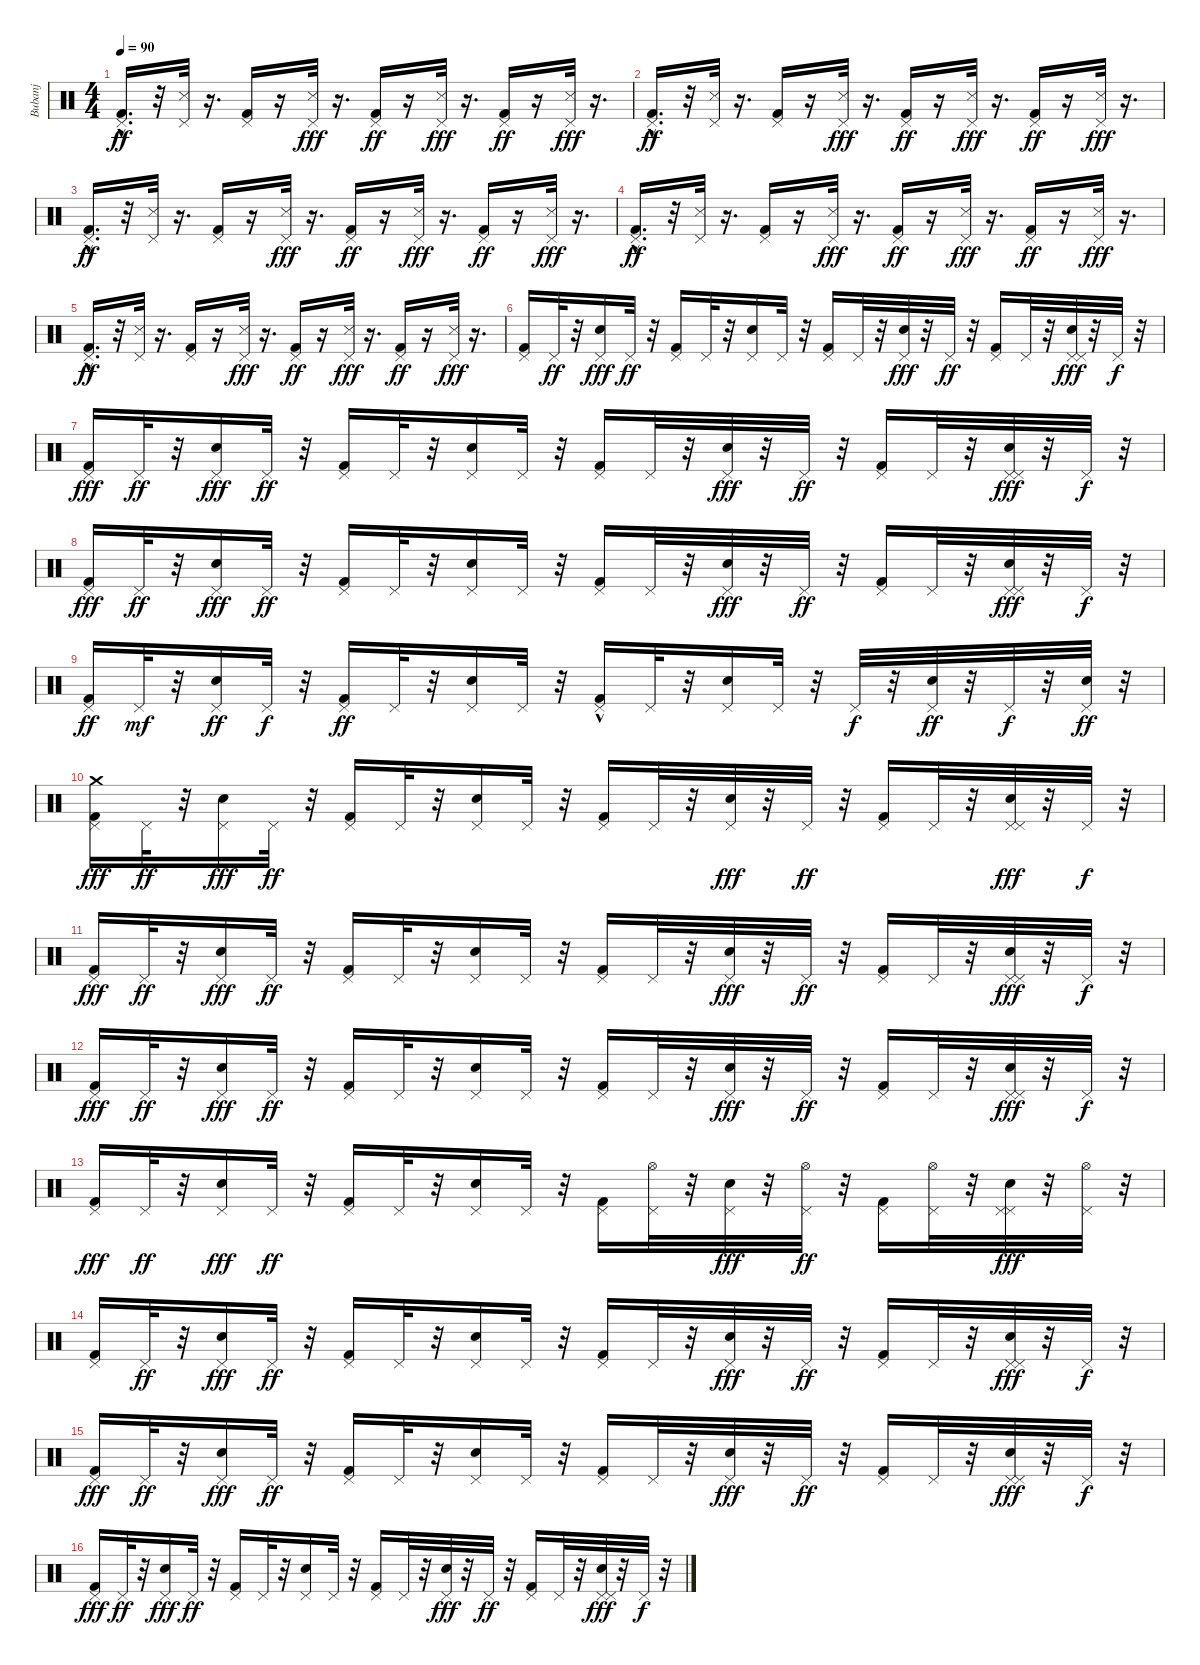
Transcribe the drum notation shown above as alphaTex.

\track ("Bubanj" "Bubanj") {instrument percussion}
\staff {score}
\articulation defaults
\ts (4 4)
\tempo 90
\clef neutral
\ks c
("Kick (hit) 2"{hac} "Pedal Hi-Hat (hit)").16{d dy ff} r.32 ("Pedal Hi-Hat (hit)" "Snare (side stick) 3").32 r.16{d} ("Pedal Hi-Hat (hit)" "Kick (hit) 2").16 r.16 ("Snare (side stick) 3" "Pedal Hi-Hat (hit)").32{dy fff} r.16{d} ("Kick (hit) 2" "Pedal Hi-Hat (hit)").16{dy ff} r.16 ("Snare (side stick) 3" "Pedal Hi-Hat (hit)").32{dy fff} r.16{d} ("Kick (hit) 2" "Pedal Hi-Hat (hit)").16{dy ff} r.16 ("Snare (side stick) 3" "Pedal Hi-Hat (hit)").32{dy fff} r.16{d} |
("Kick (hit) 2"{hac} "Pedal Hi-Hat (hit)").16{d dy ff} r.32 ("Pedal Hi-Hat (hit)" "Snare (side stick) 3").32 r.16{d} ("Pedal Hi-Hat (hit)" "Kick (hit) 2").16 r.16 ("Snare (side stick) 3" "Pedal Hi-Hat (hit)").32{dy fff} r.16{d} ("Kick (hit) 2" "Pedal Hi-Hat (hit)").16{dy ff} r.16 ("Snare (side stick) 3" "Pedal Hi-Hat (hit)").32{dy fff} r.16{d} ("Kick (hit) 2" "Pedal Hi-Hat (hit)").16{dy ff} r.16 ("Snare (side stick) 3" "Pedal Hi-Hat (hit)").32{dy fff} r.16{d} |
("Kick (hit) 2"{hac} "Pedal Hi-Hat (hit)").16{d dy ff} r.32 ("Pedal Hi-Hat (hit)" "Snare (side stick) 3").32 r.16{d} ("Pedal Hi-Hat (hit)" "Kick (hit) 2").16 r.16 ("Snare (side stick) 3" "Pedal Hi-Hat (hit)").32{dy fff} r.16{d} ("Kick (hit) 2" "Pedal Hi-Hat (hit)").16{dy ff} r.16 ("Snare (side stick) 3" "Pedal Hi-Hat (hit)").32{dy fff} r.16{d} ("Kick (hit) 2" "Pedal Hi-Hat (hit)").16{dy ff} r.16 ("Snare (side stick) 3" "Pedal Hi-Hat (hit)").32{dy fff} r.16{d} |
("Kick (hit) 2"{hac} "Pedal Hi-Hat (hit)").16{d dy ff} r.32 ("Pedal Hi-Hat (hit)" "Snare (side stick) 3").32 r.16{d} ("Pedal Hi-Hat (hit)" "Kick (hit) 2").16 r.16 ("Snare (side stick) 3" "Pedal Hi-Hat (hit)").32{dy fff} r.16{d} ("Kick (hit) 2" "Pedal Hi-Hat (hit)").16{dy ff} r.16 ("Snare (side stick) 3" "Pedal Hi-Hat (hit)").32{dy fff} r.16{d} ("Kick (hit) 2" "Pedal Hi-Hat (hit)").16{dy ff} r.16 ("Snare (side stick) 3" "Pedal Hi-Hat (hit)").32{dy fff} r.16{d} |
("Kick (hit) 2"{hac} "Pedal Hi-Hat (hit)").16{d dy ff} r.32 ("Pedal Hi-Hat (hit)" "Snare (side stick) 3").32 r.16{d} ("Pedal Hi-Hat (hit)" "Kick (hit) 2").16 r.16 ("Snare (side stick) 3" "Pedal Hi-Hat (hit)").32{dy fff} r.16{d} ("Kick (hit) 2" "Pedal Hi-Hat (hit)").16{dy ff} r.16 ("Snare (side stick) 3" "Pedal Hi-Hat (hit)").32{dy fff} r.16{d} ("Kick (hit) 2" "Pedal Hi-Hat (hit)").16{dy ff} r.16 ("Snare (side stick) 3" "Pedal Hi-Hat (hit)").32{dy fff} r.16{d} |
("Pedal Hi-Hat (hit)" "Kick (hit) 2").16 "Pedal Hi-Hat (hit)".32{dy ff} r.32 ("Pedal Hi-Hat (hit)" "Electric Snare (hit)").16{dy fff} "Pedal Hi-Hat (hit)".32{dy ff} r.32 ("Pedal Hi-Hat (hit)" "Kick (hit) 2").16 "Pedal Hi-Hat (hit)".32 r.32 ("Pedal Hi-Hat (hit)" "Electric Snare (hit)").16 "Pedal Hi-Hat (hit)".32 r.32 ("Pedal Hi-Hat (hit)" "Kick (hit) 2").16 "Pedal Hi-Hat (hit)".32 r.32 ("Pedal Hi-Hat (hit)" "Electric Snare (hit)").32{dy fff} r.32 "Pedal Hi-Hat (hit)".32{dy ff} r.32 ("Pedal Hi-Hat (hit)" "Kick (hit) 2").16 "Pedal Hi-Hat (hit)".32 r.32 ("Pedal Hi-Hat (hit)" "Pedal Hi-Hat (hit)" "Electric Snare (hit)").32{dy fff} r.32 "Pedal Hi-Hat (hit)".32{dy f} r.32 |
("Pedal Hi-Hat (hit)" "Kick (hit) 2").16{dy fff} "Pedal Hi-Hat (hit)".32{dy ff} r.32 ("Pedal Hi-Hat (hit)" "Electric Snare (hit)").16{dy fff} "Pedal Hi-Hat (hit)".32{dy ff} r.32 ("Pedal Hi-Hat (hit)" "Kick (hit) 2").16 "Pedal Hi-Hat (hit)".32 r.32 ("Pedal Hi-Hat (hit)" "Electric Snare (hit)").16 "Pedal Hi-Hat (hit)".32 r.32 ("Pedal Hi-Hat (hit)" "Kick (hit) 2").16 "Pedal Hi-Hat (hit)".32 r.32 ("Pedal Hi-Hat (hit)" "Electric Snare (hit)").32{dy fff} r.32 "Pedal Hi-Hat (hit)".32{dy ff} r.32 ("Pedal Hi-Hat (hit)" "Kick (hit) 2").16 "Pedal Hi-Hat (hit)".32 r.32 ("Pedal Hi-Hat (hit)" "Pedal Hi-Hat (hit)" "Electric Snare (hit)").32{dy fff} r.32 "Pedal Hi-Hat (hit)".32{dy f} r.32 |
("Pedal Hi-Hat (hit)" "Kick (hit) 2").16{dy fff} "Pedal Hi-Hat (hit)".32{dy ff} r.32 ("Pedal Hi-Hat (hit)" "Electric Snare (hit)").16{dy fff} "Pedal Hi-Hat (hit)".32{dy ff} r.32 ("Pedal Hi-Hat (hit)" "Kick (hit) 2").16 "Pedal Hi-Hat (hit)".32 r.32 ("Pedal Hi-Hat (hit)" "Electric Snare (hit)").16 "Pedal Hi-Hat (hit)".32 r.32 ("Pedal Hi-Hat (hit)" "Kick (hit) 2").16 "Pedal Hi-Hat (hit)".32 r.32 ("Pedal Hi-Hat (hit)" "Electric Snare (hit)").32{dy fff} r.32 "Pedal Hi-Hat (hit)".32{dy ff} r.32 ("Pedal Hi-Hat (hit)" "Kick (hit) 2").16 "Pedal Hi-Hat (hit)".32 r.32 ("Pedal Hi-Hat (hit)" "Pedal Hi-Hat (hit)" "Electric Snare (hit)").32{dy fff} r.32 "Pedal Hi-Hat (hit)".32{dy f} r.32 |
("Pedal Hi-Hat (hit)" "Kick (hit) 2").16{dy ff} "Pedal Hi-Hat (hit)".32{dy mf} r.32 ("Electric Snare (hit)" "Pedal Hi-Hat (hit)").16{dy ff} "Pedal Hi-Hat (hit)".32{dy f} r.32 ("Kick (hit) 2" "Pedal Hi-Hat (hit)").16{dy ff} "Pedal Hi-Hat (hit)".32 r.32 ("Electric Snare (hit)" "Pedal Hi-Hat (hit)").16 "Pedal Hi-Hat (hit)".32 r.32 ("Kick (hit) 2"{hac} "Pedal Hi-Hat (hit)").16 "Pedal Hi-Hat (hit)".32 r.32 ("Electric Snare (hit)" "Pedal Hi-Hat (hit)").16 "Pedal Hi-Hat (hit)".32 r.32 "Pedal Hi-Hat (hit)".32{dy f} r.32 ("Electric Snare (hit)" "Pedal Hi-Hat (hit)").32{dy ff} r.32 "Pedal Hi-Hat (hit)".32{dy f} r.32 ("Electric Snare (hit)" "Pedal Hi-Hat (hit)").32{dy ff} r.32 |
("Crash medium (hit)" "Pedal Hi-Hat (hit)" "Kick (hit) 2").16{dy fff} "Pedal Hi-Hat (hit)".32{dy ff} r.32 ("Pedal Hi-Hat (hit)" "Electric Snare (hit)").16{dy fff} "Pedal Hi-Hat (hit)".32{dy ff} r.32 ("Pedal Hi-Hat (hit)" "Kick (hit) 2").16 "Pedal Hi-Hat (hit)".32 r.32 ("Pedal Hi-Hat (hit)" "Electric Snare (hit)").16 "Pedal Hi-Hat (hit)".32 r.32 ("Pedal Hi-Hat (hit)" "Kick (hit) 2").16 "Pedal Hi-Hat (hit)".32 r.32 ("Pedal Hi-Hat (hit)" "Electric Snare (hit)").32{dy fff} r.32 "Pedal Hi-Hat (hit)".32{dy ff} r.32 ("Pedal Hi-Hat (hit)" "Kick (hit) 2").16 "Pedal Hi-Hat (hit)".32 r.32 ("Pedal Hi-Hat (hit)" "Pedal Hi-Hat (hit)" "Electric Snare (hit)").32{dy fff} r.32 "Pedal Hi-Hat (hit)".32{dy f} r.32 |
("Pedal Hi-Hat (hit)" "Kick (hit) 2").16{dy fff} "Pedal Hi-Hat (hit)".32{dy ff} r.32 ("Pedal Hi-Hat (hit)" "Electric Snare (hit)").16{dy fff} "Pedal Hi-Hat (hit)".32{dy ff} r.32 ("Pedal Hi-Hat (hit)" "Kick (hit) 2").16 "Pedal Hi-Hat (hit)".32 r.32 ("Pedal Hi-Hat (hit)" "Electric Snare (hit)").16 "Pedal Hi-Hat (hit)".32 r.32 ("Pedal Hi-Hat (hit)" "Kick (hit) 2").16 "Pedal Hi-Hat (hit)".32 r.32 ("Pedal Hi-Hat (hit)" "Electric Snare (hit)").32{dy fff} r.32 "Pedal Hi-Hat (hit)".32{dy ff} r.32 ("Pedal Hi-Hat (hit)" "Kick (hit) 2").16 "Pedal Hi-Hat (hit)".32 r.32 ("Pedal Hi-Hat (hit)" "Pedal Hi-Hat (hit)" "Electric Snare (hit)").32{dy fff} r.32 "Pedal Hi-Hat (hit)".32{dy f} r.32 |
("Pedal Hi-Hat (hit)" "Kick (hit) 2").16{dy fff} "Pedal Hi-Hat (hit)".32{dy ff} r.32 ("Pedal Hi-Hat (hit)" "Electric Snare (hit)").16{dy fff} "Pedal Hi-Hat (hit)".32{dy ff} r.32 ("Pedal Hi-Hat (hit)" "Kick (hit) 2").16 "Pedal Hi-Hat (hit)".32 r.32 ("Pedal Hi-Hat (hit)" "Electric Snare (hit)").16 "Pedal Hi-Hat (hit)".32 r.32 ("Pedal Hi-Hat (hit)" "Kick (hit) 2").16 "Pedal Hi-Hat (hit)".32 r.32 ("Pedal Hi-Hat (hit)" "Electric Snare (hit)").32{dy fff} r.32 "Pedal Hi-Hat (hit)".32{dy ff} r.32 ("Pedal Hi-Hat (hit)" "Kick (hit) 2").16 "Pedal Hi-Hat (hit)".32 r.32 ("Pedal Hi-Hat (hit)" "Pedal Hi-Hat (hit)" "Electric Snare (hit)").32{dy fff} r.32 "Pedal Hi-Hat (hit)".32{dy f} r.32 |
("Pedal Hi-Hat (hit)" "Kick (hit) 2").16{dy fff} "Pedal Hi-Hat (hit)".32{dy ff} r.32 ("Pedal Hi-Hat (hit)" "Electric Snare (hit)").16{dy fff} "Pedal Hi-Hat (hit)".32{dy ff} r.32 ("Pedal Hi-Hat (hit)" "Kick (hit) 2").16 "Pedal Hi-Hat (hit)".32 r.32 ("Pedal Hi-Hat (hit)" "Electric Snare (hit)").16 "Pedal Hi-Hat (hit)".32 r.32 ("Pedal Hi-Hat (hit)" "Kick (hit) 2").16 ("Hi-Hat (open)" "Pedal Hi-Hat (hit)").32 r.32 ("Pedal Hi-Hat (hit)" "Electric Snare (hit)").32{dy fff} r.32 ("Hi-Hat (open)" "Pedal Hi-Hat (hit)").32{dy ff} r.32 ("Pedal Hi-Hat (hit)" "Kick (hit) 2").16 ("Hi-Hat (open)" "Pedal Hi-Hat (hit)").32 r.32 ("Pedal Hi-Hat (hit)" "Pedal Hi-Hat (hit)" "Electric Snare (hit)").32{dy fff} r.32 ("Hi-Hat (open)" "Pedal Hi-Hat (hit)").32 r.32 |
("Pedal Hi-Hat (hit)" "Kick (hit) 2").16 "Pedal Hi-Hat (hit)".32{dy ff} r.32 ("Pedal Hi-Hat (hit)" "Electric Snare (hit)").16{dy fff} "Pedal Hi-Hat (hit)".32{dy ff} r.32 ("Pedal Hi-Hat (hit)" "Kick (hit) 2").16 "Pedal Hi-Hat (hit)".32 r.32 ("Pedal Hi-Hat (hit)" "Electric Snare (hit)").16 "Pedal Hi-Hat (hit)".32 r.32 ("Pedal Hi-Hat (hit)" "Kick (hit) 2").16 "Pedal Hi-Hat (hit)".32 r.32 ("Pedal Hi-Hat (hit)" "Electric Snare (hit)").32{dy fff} r.32 "Pedal Hi-Hat (hit)".32{dy ff} r.32 ("Pedal Hi-Hat (hit)" "Kick (hit) 2").16 "Pedal Hi-Hat (hit)".32 r.32 ("Pedal Hi-Hat (hit)" "Pedal Hi-Hat (hit)" "Electric Snare (hit)").32{dy fff} r.32 "Pedal Hi-Hat (hit)".32{dy f} r.32 |
("Pedal Hi-Hat (hit)" "Kick (hit) 2").16{dy fff} "Pedal Hi-Hat (hit)".32{dy ff} r.32 ("Pedal Hi-Hat (hit)" "Electric Snare (hit)").16{dy fff} "Pedal Hi-Hat (hit)".32{dy ff} r.32 ("Pedal Hi-Hat (hit)" "Kick (hit) 2").16 "Pedal Hi-Hat (hit)".32 r.32 ("Pedal Hi-Hat (hit)" "Electric Snare (hit)").16 "Pedal Hi-Hat (hit)".32 r.32 ("Pedal Hi-Hat (hit)" "Kick (hit) 2").16 "Pedal Hi-Hat (hit)".32 r.32 ("Pedal Hi-Hat (hit)" "Electric Snare (hit)").32{dy fff} r.32 "Pedal Hi-Hat (hit)".32{dy ff} r.32 ("Pedal Hi-Hat (hit)" "Kick (hit) 2").16 "Pedal Hi-Hat (hit)".32 r.32 ("Pedal Hi-Hat (hit)" "Pedal Hi-Hat (hit)" "Electric Snare (hit)").32{dy fff} r.32 "Pedal Hi-Hat (hit)".32{dy f} r.32 |
("Pedal Hi-Hat (hit)" "Kick (hit) 2").16{dy fff} "Pedal Hi-Hat (hit)".32{dy ff} r.32 ("Pedal Hi-Hat (hit)" "Electric Snare (hit)").16{dy fff} "Pedal Hi-Hat (hit)".32{dy ff} r.32 ("Pedal Hi-Hat (hit)" "Kick (hit) 2").16 "Pedal Hi-Hat (hit)".32 r.32 ("Pedal Hi-Hat (hit)" "Electric Snare (hit)").16 "Pedal Hi-Hat (hit)".32 r.32 ("Pedal Hi-Hat (hit)" "Kick (hit) 2").16 "Pedal Hi-Hat (hit)".32 r.32 ("Pedal Hi-Hat (hit)" "Electric Snare (hit)").32{dy fff} r.32 "Pedal Hi-Hat (hit)".32{dy ff} r.32 ("Pedal Hi-Hat (hit)" "Kick (hit) 2").16 "Pedal Hi-Hat (hit)".32 r.32 ("Pedal Hi-Hat (hit)" "Pedal Hi-Hat (hit)" "Electric Snare (hit)").32{dy fff} r.32 "Pedal Hi-Hat (hit)".32{dy f} r.32
